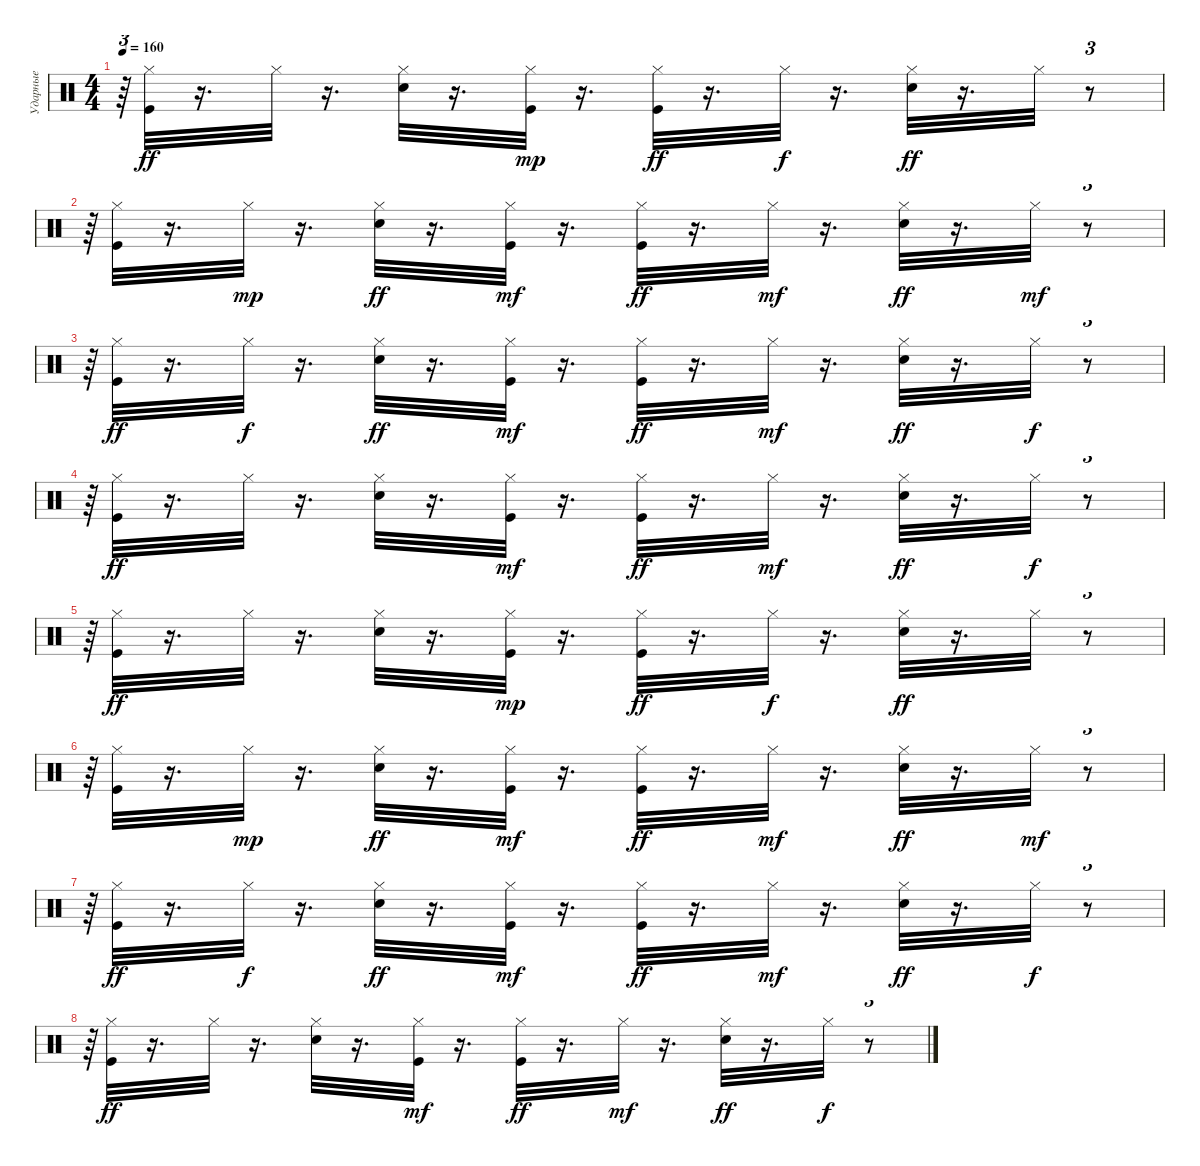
\track ("Ударные" "Ударные") {instrument percussion}
\staff {score}
\articulation defaults
\ts (4 4)
\tempo 160
\clef neutral
\ks c
r.64{tu (3 2) dy f} ("Kick (hit)" "Hi-Hat (closed)").32{dy ff} r.16{d} "Hi-Hat (closed)".32 r.16{d} ("Hi-Hat (closed)" "Electric Snare (hit)").32 r.16{d} ("Kick (hit)" "Hi-Hat (closed)").32{dy mp} r.16{d} ("Kick (hit)" "Hi-Hat (closed)").32{dy ff} r.16{d} "Hi-Hat (closed)".32{dy f} r.16{d} ("Hi-Hat (closed)" "Electric Snare (hit)").32{dy ff} r.16{d} "Hi-Hat (closed)".32 r.8{tu (3 2)} |
r.64{tu (3 2)} ("Kick (hit)" "Hi-Hat (closed)").32 r.16{d} "Hi-Hat (closed)".32{dy mp} r.16{d} ("Hi-Hat (closed)" "Electric Snare (hit)").32{dy ff} r.16{d} ("Kick (hit)" "Hi-Hat (closed)").32{dy mf} r.16{d} ("Kick (hit)" "Hi-Hat (closed)").32{dy ff} r.16{d} "Hi-Hat (closed)".32{dy mf} r.16{d} ("Hi-Hat (closed)" "Electric Snare (hit)").32{dy ff} r.16{d} "Hi-Hat (closed)".32{dy mf} r.8{tu (3 2)} |
r.64{tu (3 2)} ("Kick (hit)" "Hi-Hat (closed)").32{dy ff} r.16{d} "Hi-Hat (closed)".32{dy f} r.16{d} ("Hi-Hat (closed)" "Electric Snare (hit)").32{dy ff} r.16{d} ("Kick (hit)" "Hi-Hat (closed)").32{dy mf} r.16{d} ("Kick (hit)" "Hi-Hat (closed)").32{dy ff} r.16{d} "Hi-Hat (closed)".32{dy mf} r.16{d} ("Hi-Hat (closed)" "Electric Snare (hit)").32{dy ff} r.16{d} "Hi-Hat (closed)".32{dy f} r.8{tu (3 2)} |
r.64{tu (3 2)} ("Kick (hit)" "Hi-Hat (closed)").32{dy ff} r.16{d} "Hi-Hat (closed)".32 r.16{d} ("Hi-Hat (closed)" "Electric Snare (hit)").32 r.16{d} ("Kick (hit)" "Hi-Hat (closed)").32{dy mf} r.16{d} ("Kick (hit)" "Hi-Hat (closed)").32{dy ff} r.16{d} "Hi-Hat (closed)".32{dy mf} r.16{d} ("Hi-Hat (closed)" "Electric Snare (hit)").32{dy ff} r.16{d} "Hi-Hat (closed)".32{dy f} r.8{tu (3 2)} |
r.64{tu (3 2)} ("Kick (hit)" "Hi-Hat (closed)").32{dy ff} r.16{d} "Hi-Hat (closed)".32 r.16{d} ("Hi-Hat (closed)" "Electric Snare (hit)").32 r.16{d} ("Kick (hit)" "Hi-Hat (closed)").32{dy mp} r.16{d} ("Kick (hit)" "Hi-Hat (closed)").32{dy ff} r.16{d} "Hi-Hat (closed)".32{dy f} r.16{d} ("Hi-Hat (closed)" "Electric Snare (hit)").32{dy ff} r.16{d} "Hi-Hat (closed)".32 r.8{tu (3 2)} |
r.64{tu (3 2)} ("Kick (hit)" "Hi-Hat (closed)").32 r.16{d} "Hi-Hat (closed)".32{dy mp} r.16{d} ("Hi-Hat (closed)" "Electric Snare (hit)").32{dy ff} r.16{d} ("Kick (hit)" "Hi-Hat (closed)").32{dy mf} r.16{d} ("Kick (hit)" "Hi-Hat (closed)").32{dy ff} r.16{d} "Hi-Hat (closed)".32{dy mf} r.16{d} ("Hi-Hat (closed)" "Electric Snare (hit)").32{dy ff} r.16{d} "Hi-Hat (closed)".32{dy mf} r.8{tu (3 2)} |
r.64{tu (3 2)} ("Kick (hit)" "Hi-Hat (closed)").32{dy ff} r.16{d} "Hi-Hat (closed)".32{dy f} r.16{d} ("Hi-Hat (closed)" "Electric Snare (hit)").32{dy ff} r.16{d} ("Kick (hit)" "Hi-Hat (closed)").32{dy mf} r.16{d} ("Kick (hit)" "Hi-Hat (closed)").32{dy ff} r.16{d} "Hi-Hat (closed)".32{dy mf} r.16{d} ("Hi-Hat (closed)" "Electric Snare (hit)").32{dy ff} r.16{d} "Hi-Hat (closed)".32{dy f} r.8{tu (3 2)} |
r.64{tu (3 2)} ("Kick (hit)" "Hi-Hat (closed)").32{dy ff} r.16{d} "Hi-Hat (closed)".32 r.16{d} ("Hi-Hat (closed)" "Electric Snare (hit)").32 r.16{d} ("Kick (hit)" "Hi-Hat (closed)").32{dy mf} r.16{d} ("Kick (hit)" "Hi-Hat (closed)").32{dy ff} r.16{d} "Hi-Hat (closed)".32{dy mf} r.16{d} ("Hi-Hat (closed)" "Electric Snare (hit)").32{dy ff} r.16{d} "Hi-Hat (closed)".32{dy f} r.8{tu (3 2)}
